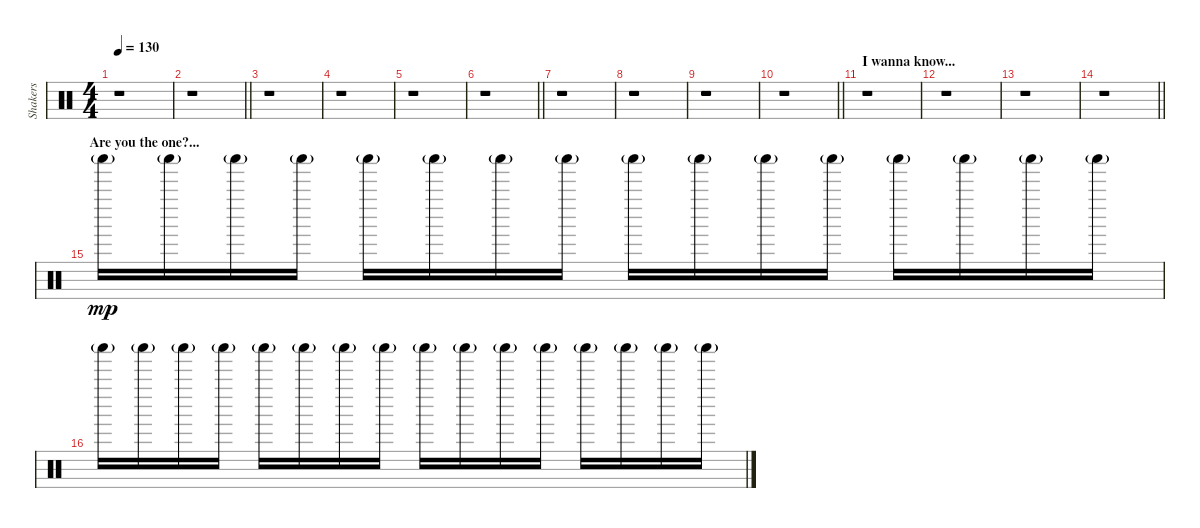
\track ("Shakers" "Shakers") {instrument percussion}
\staff {score}
\articulation defaults
\ts (4 4)
\tempo 130
\clef neutral
\ks c
r.1{dy mp} |
\barLineRight lightlight
r.1 |
r.1 |
r.1 |
r.1 |
\barLineRight lightlight
r.1 |
r.1 |
r.1 |
r.1 |
\barLineRight lightlight
r.1 |
\section ("" "I wanna know...")
r.1 |
r.1 |
r.1 |
\barLineRight lightlight
r.1 |
\section ("" "Are you the one?...")
"Shaker (hit)"{g}.16 "Shaker (hit)"{g}.16 "Shaker (hit)"{g}.16 "Shaker (hit)"{g}.16 "Shaker (hit)"{g}.16 "Shaker (hit)"{g}.16 "Shaker (hit)"{g}.16 "Shaker (hit)"{g}.16 "Shaker (hit)"{g}.16 "Shaker (hit)"{g}.16 "Shaker (hit)"{g}.16 "Shaker (hit)"{g}.16 "Shaker (hit)"{g}.16 "Shaker (hit)"{g}.16 "Shaker (hit)"{g}.16 "Shaker (hit)"{g}.16 |
"Shaker (hit)"{g}.16 "Shaker (hit)"{g}.16 "Shaker (hit)"{g}.16 "Shaker (hit)"{g}.16 "Shaker (hit)"{g}.16 "Shaker (hit)"{g}.16 "Shaker (hit)"{g}.16 "Shaker (hit)"{g}.16 "Shaker (hit)"{g}.16 "Shaker (hit)"{g}.16 "Shaker (hit)"{g}.16 "Shaker (hit)"{g}.16 "Shaker (hit)"{g}.16 "Shaker (hit)"{g}.16 "Shaker (hit)"{g}.16 "Shaker (hit)"{g}.16
